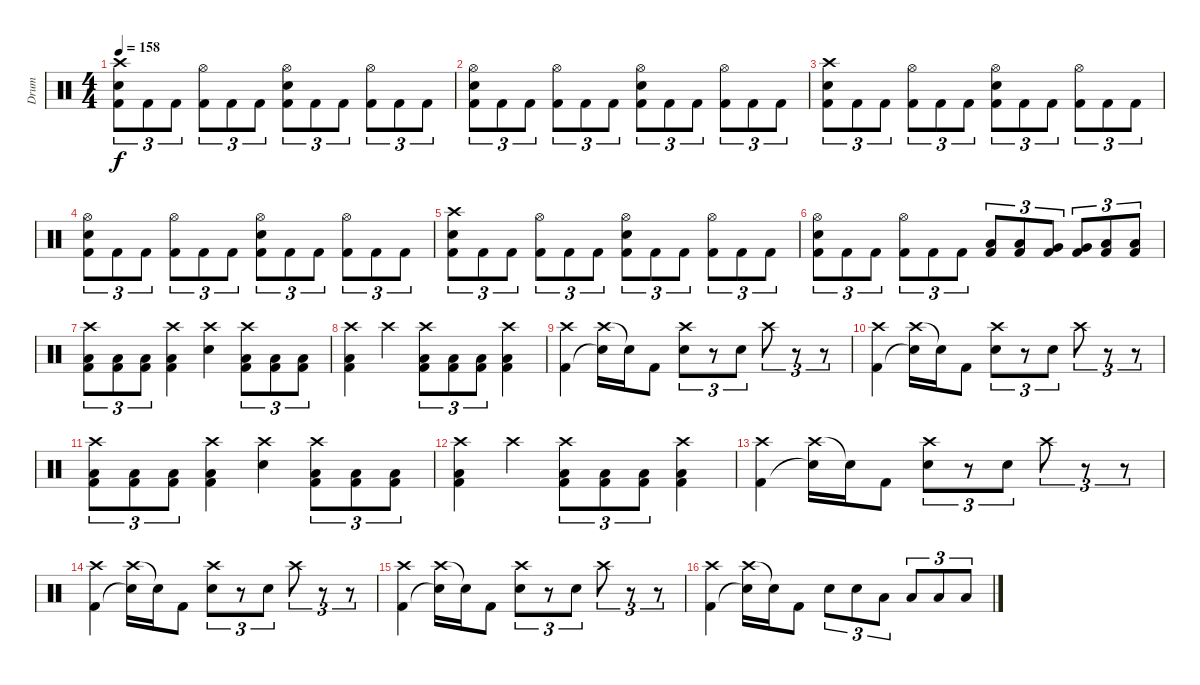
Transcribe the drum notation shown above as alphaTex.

\track ("Drum" "Drum") {instrument percussion}
\staff {score}
\articulation defaults
\ts (4 4)
\tempo 158
\clef neutral
\ks c
("Crash high (hit)" "Electric Snare (hit)" "Kick (hit) 2").8{tu (3 2) dy f} "Kick (hit) 2".8{tu (3 2)} "Kick (hit) 2".8{tu (3 2)} ("Hi-Hat (open)" "Kick (hit) 2").8{tu (3 2)} "Kick (hit) 2".8{tu (3 2)} "Kick (hit) 2".8{tu (3 2)} ("Hi-Hat (open)" "Electric Snare (hit)" "Kick (hit) 2").8{tu (3 2)} "Kick (hit) 2".8{tu (3 2)} "Kick (hit) 2".8{tu (3 2)} ("Hi-Hat (open)" "Kick (hit) 2").8{tu (3 2)} "Kick (hit) 2".8{tu (3 2)} "Kick (hit) 2".8{tu (3 2)} |
("Hi-Hat (open)" "Electric Snare (hit)" "Kick (hit) 2").8{tu (3 2)} "Kick (hit) 2".8{tu (3 2)} "Kick (hit) 2".8{tu (3 2)} ("Hi-Hat (open)" "Kick (hit) 2").8{tu (3 2)} "Kick (hit) 2".8{tu (3 2)} "Kick (hit) 2".8{tu (3 2)} ("Hi-Hat (open)" "Electric Snare (hit)" "Kick (hit) 2").8{tu (3 2)} "Kick (hit) 2".8{tu (3 2)} "Kick (hit) 2".8{tu (3 2)} ("Hi-Hat (open)" "Kick (hit) 2").8{tu (3 2)} "Kick (hit) 2".8{tu (3 2)} "Kick (hit) 2".8{tu (3 2)} |
("Crash high (hit)" "Electric Snare (hit)" "Kick (hit) 2").8{tu (3 2)} "Kick (hit) 2".8{tu (3 2)} "Kick (hit) 2".8{tu (3 2)} ("Hi-Hat (open)" "Kick (hit) 2").8{tu (3 2)} "Kick (hit) 2".8{tu (3 2)} "Kick (hit) 2".8{tu (3 2)} ("Hi-Hat (open)" "Electric Snare (hit)" "Kick (hit) 2").8{tu (3 2)} "Kick (hit) 2".8{tu (3 2)} "Kick (hit) 2".8{tu (3 2)} ("Hi-Hat (open)" "Kick (hit) 2").8{tu (3 2)} "Kick (hit) 2".8{tu (3 2)} "Kick (hit) 2".8{tu (3 2)} |
("Hi-Hat (open)" "Electric Snare (hit)" "Kick (hit) 2").8{tu (3 2)} "Kick (hit) 2".8{tu (3 2)} "Kick (hit) 2".8{tu (3 2)} ("Hi-Hat (open)" "Kick (hit) 2").8{tu (3 2)} "Kick (hit) 2".8{tu (3 2)} "Kick (hit) 2".8{tu (3 2)} ("Hi-Hat (open)" "Electric Snare (hit)" "Kick (hit) 2").8{tu (3 2)} "Kick (hit) 2".8{tu (3 2)} "Kick (hit) 2".8{tu (3 2)} ("Hi-Hat (open)" "Kick (hit) 2").8{tu (3 2)} "Kick (hit) 2".8{tu (3 2)} "Kick (hit) 2".8{tu (3 2)} |
("Crash high (hit)" "Electric Snare (hit)" "Kick (hit) 2").8{tu (3 2)} "Kick (hit) 2".8{tu (3 2)} "Kick (hit) 2".8{tu (3 2)} ("Hi-Hat (open)" "Kick (hit) 2").8{tu (3 2)} "Kick (hit) 2".8{tu (3 2)} "Kick (hit) 2".8{tu (3 2)} ("Hi-Hat (open)" "Electric Snare (hit)" "Kick (hit) 2").8{tu (3 2)} "Kick (hit) 2".8{tu (3 2)} "Kick (hit) 2".8{tu (3 2)} ("Hi-Hat (open)" "Kick (hit) 2").8{tu (3 2)} "Kick (hit) 2".8{tu (3 2)} "Kick (hit) 2".8{tu (3 2)} |
("Hi-Hat (open)" "Electric Snare (hit)" "Kick (hit) 2").8{tu (3 2)} "Kick (hit) 2".8{tu (3 2)} "Kick (hit) 2".8{tu (3 2)} ("Hi-Hat (open)" "Kick (hit) 2").8{tu (3 2)} "Kick (hit) 2".8{tu (3 2)} "Kick (hit) 2".8{tu (3 2)} ("Low Tom (hit)" "Kick (hit) 2").8{tu (3 2)} ("Low Tom (hit)" "Kick (hit) 2").8{tu (3 2)} ("Very Low Tom (hit)" "Kick (hit) 2").8{tu (3 2)} ("Very Low Tom (hit)" "Kick (hit) 2").8{tu (3 2)} ("Low Floor Tom (hit)" "Kick (hit) 2").8{tu (3 2)} ("Low Floor Tom (hit)" "Kick (hit) 2").8{tu (3 2)} |
("Crash high (hit)" "Low Floor Tom (hit)" "Kick (hit) 2").8{tu (3 2)} ("Low Floor Tom (hit)" "Kick (hit) 2").8{tu (3 2)} ("Low Floor Tom (hit)" "Kick (hit) 2").8{tu (3 2)} ("Crash high (hit)" "Low Floor Tom (hit)" "Kick (hit) 2").4 ("Crash high (hit)" "Electric Snare (hit)").4 ("Crash high (hit)" "Low Floor Tom (hit)" "Kick (hit) 2").8{tu (3 2)} ("Low Floor Tom (hit)" "Kick (hit) 2").8{tu (3 2)} ("Low Floor Tom (hit)" "Kick (hit) 2").8{tu (3 2)} |
("Crash high (hit)" "Low Floor Tom (hit)" "Kick (hit) 2").4 "Crash high (hit)".4 ("Crash high (hit)" "Low Floor Tom (hit)" "Kick (hit) 2").8{tu (3 2)} ("Low Floor Tom (hit)" "Kick (hit) 2").8{tu (3 2)} ("Low Floor Tom (hit)" "Kick (hit) 2").8{tu (3 2)} ("Crash high (hit)" "Low Floor Tom (hit)" "Kick (hit) 2").4 |
("Crash high (hit)" "Kick (hit) 2").4 ("Crash high (hit)" "Snare (hit)"{t}).16 "Snare (hit)"{t}.16 "Kick (hit) 2".8 ("Crash high (hit)" "Electric Snare (hit)").8{tu (3 2)} r.8{tu (3 2)} "Electric Snare (hit)".8{tu (3 2)} "Crash high (hit)".8{tu (3 2)} r.8{tu (3 2)} r.8{tu (3 2)} |
("Crash high (hit)" "Kick (hit) 2").4 ("Crash high (hit)" "Snare (hit)"{t}).16 "Snare (hit)"{t}.16 "Kick (hit) 2".8 ("Crash high (hit)" "Electric Snare (hit)").8{tu (3 2)} r.8{tu (3 2)} "Electric Snare (hit)".8{tu (3 2)} "Crash high (hit)".8{tu (3 2)} r.8{tu (3 2)} r.8{tu (3 2)} |
("Crash high (hit)" "Low Floor Tom (hit)" "Kick (hit) 2").8{tu (3 2)} ("Low Floor Tom (hit)" "Kick (hit) 2").8{tu (3 2)} ("Low Floor Tom (hit)" "Kick (hit) 2").8{tu (3 2)} ("Crash high (hit)" "Low Floor Tom (hit)" "Kick (hit) 2").4 ("Crash high (hit)" "Electric Snare (hit)").4 ("Crash high (hit)" "Low Floor Tom (hit)" "Kick (hit) 2").8{tu (3 2)} ("Low Floor Tom (hit)" "Kick (hit) 2").8{tu (3 2)} ("Low Floor Tom (hit)" "Kick (hit) 2").8{tu (3 2)} |
("Crash high (hit)" "Low Floor Tom (hit)" "Kick (hit) 2").4 "Crash high (hit)".4 ("Crash high (hit)" "Low Floor Tom (hit)" "Kick (hit) 2").8{tu (3 2)} ("Low Floor Tom (hit)" "Kick (hit) 2").8{tu (3 2)} ("Low Floor Tom (hit)" "Kick (hit) 2").8{tu (3 2)} ("Crash high (hit)" "Low Floor Tom (hit)" "Kick (hit) 2").4 |
("Crash high (hit)" "Kick (hit) 2").4 ("Crash high (hit)" "Snare (hit)"{t}).16 "Snare (hit)"{t}.16 "Kick (hit) 2".8 ("Crash high (hit)" "Electric Snare (hit)").8{tu (3 2)} r.8{tu (3 2)} "Electric Snare (hit)".8{tu (3 2)} "Crash high (hit)".8{tu (3 2)} r.8{tu (3 2)} r.8{tu (3 2)} |
("Crash high (hit)" "Kick (hit) 2").4 ("Crash high (hit)" "Snare (hit)"{t}).16 "Snare (hit)"{t}.16 "Kick (hit) 2".8 ("Crash high (hit)" "Electric Snare (hit)").8{tu (3 2)} r.8{tu (3 2)} "Electric Snare (hit)".8{tu (3 2)} "Crash high (hit)".8{tu (3 2)} r.8{tu (3 2)} r.8{tu (3 2)} |
("Crash high (hit)" "Kick (hit) 2").4 ("Crash high (hit)" "Snare (hit)"{t}).16 "Snare (hit)"{t}.16 "Kick (hit) 2".8 ("Crash high (hit)" "Electric Snare (hit)").8{tu (3 2)} r.8{tu (3 2)} "Electric Snare (hit)".8{tu (3 2)} "Crash high (hit)".8{tu (3 2)} r.8{tu (3 2)} r.8{tu (3 2)} |
("Crash high (hit)" "Kick (hit) 2").4 ("Crash high (hit)" "Snare (hit)"{t}).16 "Snare (hit)"{t}.16 "Kick (hit) 2".8 "Electric Snare (hit)".8{tu (3 2)} "Electric Snare (hit)".8{tu (3 2)} "Low Tom (hit)".8{tu (3 2)} "Low Tom (hit)".8{tu (3 2)} "Low Floor Tom (hit)".8{tu (3 2)} "Low Floor Tom (hit)".8{tu (3 2)}
